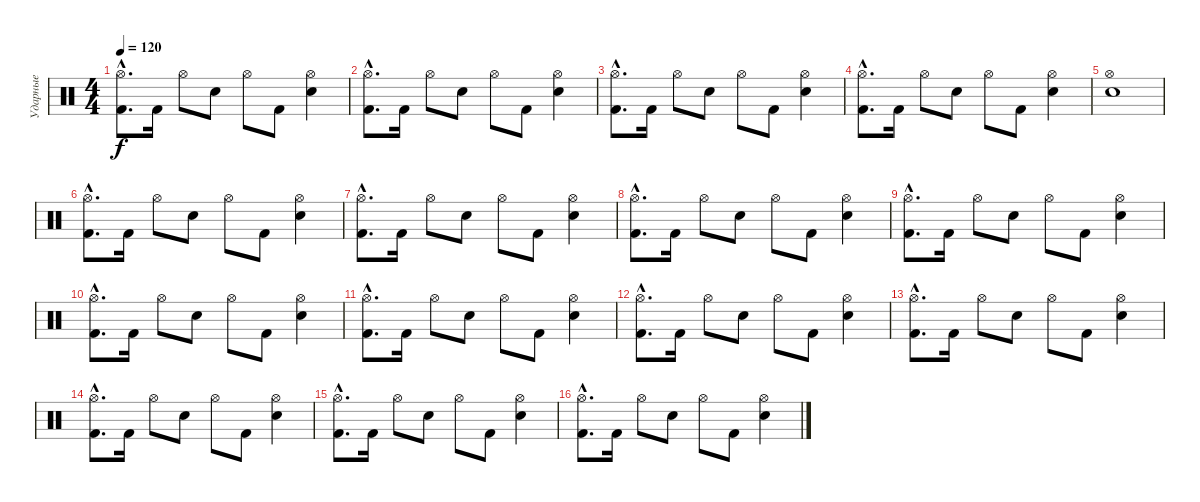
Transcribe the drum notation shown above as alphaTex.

\track ("Ударные" "Ударные") {instrument percussion}
\staff {score}
\articulation defaults
\ts (4 4)
\tempo 120
\clef neutral
\ks c
("Hi-Hat (open)"{hac} "Kick (hit) 2"{hac}).8{d dy f} "Kick (hit) 2".16 "Hi-Hat (open)".8 "Snare (hit) 2".8 "Hi-Hat (open)".8 "Kick (hit) 2".8 ("Hi-Hat (open)" "Snare (hit) 2").4 |
("Hi-Hat (open)"{hac} "Kick (hit) 2"{hac}).8{d} "Kick (hit) 2".16 "Hi-Hat (open)".8 "Snare (hit) 2".8 "Hi-Hat (open)".8 "Kick (hit) 2".8 ("Hi-Hat (open)" "Snare (hit) 2").4 |
("Hi-Hat (open)"{hac} "Kick (hit) 2"{hac}).8{d} "Kick (hit) 2".16 "Hi-Hat (open)".8 "Snare (hit) 2".8 "Hi-Hat (open)".8 "Kick (hit) 2".8 ("Hi-Hat (open)" "Snare (hit) 2").4 |
("Hi-Hat (open)"{hac} "Kick (hit) 2"{hac}).8{d} "Kick (hit) 2".16 "Hi-Hat (open)".8 "Snare (hit) 2".8 "Hi-Hat (open)".8 "Kick (hit) 2".8 ("Hi-Hat (open)" "Snare (hit) 2").4 |
("Hi-Hat (open)" "Snare (hit) 2").1 |
("Hi-Hat (open)"{hac} "Kick (hit) 2"{hac}).8{d} "Kick (hit) 2".16 "Hi-Hat (open)".8 "Snare (hit) 2".8 "Hi-Hat (open)".8 "Kick (hit) 2".8 ("Hi-Hat (open)" "Snare (hit) 2").4 |
("Hi-Hat (open)"{hac} "Kick (hit) 2"{hac}).8{d} "Kick (hit) 2".16 "Hi-Hat (open)".8 "Snare (hit) 2".8 "Hi-Hat (open)".8 "Kick (hit) 2".8 ("Hi-Hat (open)" "Snare (hit) 2").4 |
("Hi-Hat (open)"{hac} "Kick (hit) 2"{hac}).8{d} "Kick (hit) 2".16 "Hi-Hat (open)".8 "Snare (hit) 2".8 "Hi-Hat (open)".8 "Kick (hit) 2".8 ("Hi-Hat (open)" "Snare (hit) 2").4 |
("Hi-Hat (open)"{hac} "Kick (hit) 2"{hac}).8{d} "Kick (hit) 2".16 "Hi-Hat (open)".8 "Snare (hit) 2".8 "Hi-Hat (open)".8 "Kick (hit) 2".8 ("Hi-Hat (open)" "Snare (hit) 2").4 |
("Hi-Hat (open)"{hac} "Kick (hit) 2"{hac}).8{d} "Kick (hit) 2".16 "Hi-Hat (open)".8 "Snare (hit) 2".8 "Hi-Hat (open)".8 "Kick (hit) 2".8 ("Hi-Hat (open)" "Snare (hit) 2").4 |
("Hi-Hat (open)"{hac} "Kick (hit) 2"{hac}).8{d} "Kick (hit) 2".16 "Hi-Hat (open)".8 "Snare (hit) 2".8 "Hi-Hat (open)".8 "Kick (hit) 2".8 ("Hi-Hat (open)" "Snare (hit) 2").4 |
("Hi-Hat (open)"{hac} "Kick (hit) 2"{hac}).8{d} "Kick (hit) 2".16 "Hi-Hat (open)".8 "Snare (hit) 2".8 "Hi-Hat (open)".8 "Kick (hit) 2".8 ("Hi-Hat (open)" "Snare (hit) 2").4 |
("Hi-Hat (open)"{hac} "Kick (hit) 2"{hac}).8{d} "Kick (hit) 2".16 "Hi-Hat (open)".8 "Snare (hit) 2".8 "Hi-Hat (open)".8 "Kick (hit) 2".8 ("Hi-Hat (open)" "Snare (hit) 2").4 |
("Hi-Hat (open)"{hac} "Kick (hit) 2"{hac}).8{d} "Kick (hit) 2".16 "Hi-Hat (open)".8 "Snare (hit) 2".8 "Hi-Hat (open)".8 "Kick (hit) 2".8 ("Hi-Hat (open)" "Snare (hit) 2").4 |
("Hi-Hat (open)"{hac} "Kick (hit) 2"{hac}).8{d} "Kick (hit) 2".16 "Hi-Hat (open)".8 "Snare (hit) 2".8 "Hi-Hat (open)".8 "Kick (hit) 2".8 ("Hi-Hat (open)" "Snare (hit) 2").4 |
("Hi-Hat (open)"{hac} "Kick (hit) 2"{hac}).8{d} "Kick (hit) 2".16 "Hi-Hat (open)".8 "Snare (hit) 2".8 "Hi-Hat (open)".8 "Kick (hit) 2".8 ("Hi-Hat (open)" "Snare (hit) 2").4
